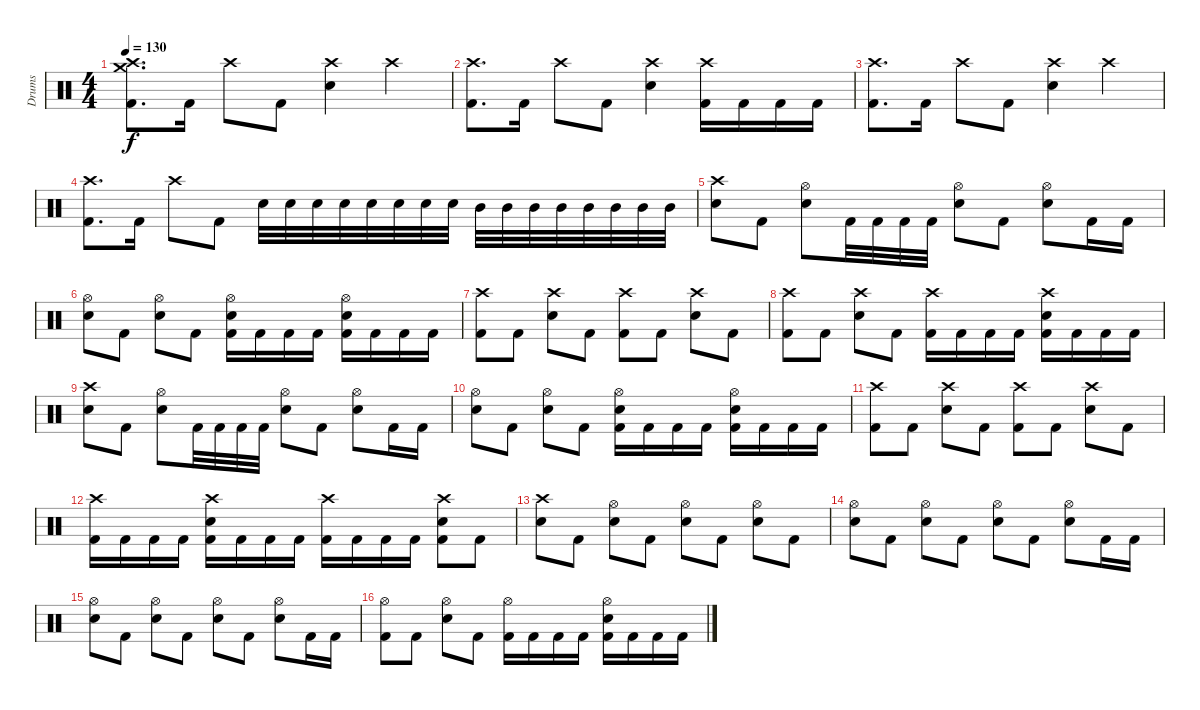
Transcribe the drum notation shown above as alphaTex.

\track ("Drums" "Drums") {instrument percussion}
\staff {score}
\articulation defaults
\ts (4 4)
\tempo 130
\clef neutral
\ks c
("Crash high (hit)" "Crash medium (hit)" "Kick (hit) 2").8{d dy f} "Kick (hit) 2".16 "Crash high (hit)".8 "Kick (hit) 2".8 ("Crash high (hit)" "Electric Snare (hit)").4 "Crash high (hit)".4 |
("Crash high (hit)" "Kick (hit) 2").8{d} "Kick (hit) 2".16 "Crash high (hit)".8 "Kick (hit) 2".8 ("Crash high (hit)" "Electric Snare (hit)").4 ("Crash high (hit)" "Kick (hit) 2").16 "Kick (hit) 2".16 "Kick (hit) 2".16 "Kick (hit) 2".16 |
("Crash high (hit)" "Kick (hit) 2").8{d} "Kick (hit) 2".16 "Crash high (hit)".8 "Kick (hit) 2".8 ("Crash high (hit)" "Electric Snare (hit)").4 "Crash high (hit)".4 |
("Crash high (hit)" "Kick (hit) 2").8{d} "Kick (hit) 2".16 "Crash high (hit)".8 "Kick (hit) 2".8 "Electric Snare (hit)".32 "Electric Snare (hit)".32 "Electric Snare (hit)".32 "Electric Snare (hit)".32 "Electric Snare (hit)".32 "Electric Snare (hit)".32 "Electric Snare (hit)".32 "Electric Snare (hit)".32 "Mid Tom (hit)".32 "Mid Tom (hit)".32 "Mid Tom (hit)".32 "Mid Tom (hit)".32 "Mid Tom (hit)".32 "Mid Tom (hit)".32 "Mid Tom (hit)".32 "Mid Tom (hit)".32 |
("Crash high (hit)" "Electric Snare (hit)").8 "Kick (hit) 2".8 ("Hi-Hat (open)" "Electric Snare (hit)").8 "Kick (hit) 2".32 "Kick (hit) 2".32 "Kick (hit) 2".32 "Kick (hit) 2".32 ("Hi-Hat (open)" "Electric Snare (hit)").8 "Kick (hit) 2".8 ("Hi-Hat (open)" "Electric Snare (hit)").8 "Kick (hit) 2".16 "Kick (hit) 2".16 |
("Hi-Hat (open)" "Electric Snare (hit)").8 "Kick (hit) 2".8 ("Hi-Hat (open)" "Electric Snare (hit)").8 "Kick (hit) 2".8 ("Hi-Hat (open)" "Electric Snare (hit)" "Kick (hit) 2").16 "Kick (hit) 2".16 "Kick (hit) 2".16 "Kick (hit) 2".16 ("Hi-Hat (open)" "Electric Snare (hit)" "Kick (hit) 2").16 "Kick (hit) 2".16 "Kick (hit) 2".16 "Kick (hit) 2".16 |
("Crash high (hit)" "Kick (hit) 2").8 "Kick (hit) 2".8 ("Crash high (hit)" "Electric Snare (hit)").8 "Kick (hit) 2".8 ("Crash high (hit)" "Kick (hit) 2").8 "Kick (hit) 2".8 ("Crash high (hit)" "Electric Snare (hit)").8 "Kick (hit) 2".8 |
("Crash high (hit)" "Kick (hit) 2").8 "Kick (hit) 2".8 ("Crash high (hit)" "Electric Snare (hit)").8 "Kick (hit) 2".8 ("Crash high (hit)" "Kick (hit) 2").16 "Kick (hit) 2".16 "Kick (hit) 2".16 "Kick (hit) 2".16 ("Crash high (hit)" "Electric Snare (hit)" "Kick (hit) 2").16 "Kick (hit) 2".16 "Kick (hit) 2".16 "Kick (hit) 2".16 |
("Crash high (hit)" "Electric Snare (hit)").8 "Kick (hit) 2".8 ("Hi-Hat (open)" "Electric Snare (hit)").8 "Kick (hit) 2".32 "Kick (hit) 2".32 "Kick (hit) 2".32 "Kick (hit) 2".32 ("Hi-Hat (open)" "Electric Snare (hit)").8 "Kick (hit) 2".8 ("Hi-Hat (open)" "Electric Snare (hit)").8 "Kick (hit) 2".16 "Kick (hit) 2".16 |
("Hi-Hat (open)" "Electric Snare (hit)").8 "Kick (hit) 2".8 ("Hi-Hat (open)" "Electric Snare (hit)").8 "Kick (hit) 2".8 ("Hi-Hat (open)" "Electric Snare (hit)" "Kick (hit) 2").16 "Kick (hit) 2".16 "Kick (hit) 2".16 "Kick (hit) 2".16 ("Hi-Hat (open)" "Electric Snare (hit)" "Kick (hit) 2").16 "Kick (hit) 2".16 "Kick (hit) 2".16 "Kick (hit) 2".16 |
("Crash high (hit)" "Kick (hit) 2").8 "Kick (hit) 2".8 ("Crash high (hit)" "Electric Snare (hit)").8 "Kick (hit) 2".8 ("Crash high (hit)" "Kick (hit) 2").8 "Kick (hit) 2".8 ("Crash high (hit)" "Electric Snare (hit)").8 "Kick (hit) 2".8 |
("Crash high (hit)" "Kick (hit) 2").16 "Kick (hit) 2".16 "Kick (hit) 2".16 "Kick (hit) 2".16 ("Crash high (hit)" "Electric Snare (hit)" "Kick (hit) 2").16 "Kick (hit) 2".16 "Kick (hit) 2".16 "Kick (hit) 2".16 ("Crash high (hit)" "Kick (hit) 2").16 "Kick (hit) 2".16 "Kick (hit) 2".16 "Kick (hit) 2".16 ("Crash high (hit)" "Electric Snare (hit)" "Kick (hit) 2").8 "Kick (hit) 2".8 |
("Crash high (hit)" "Electric Snare (hit)").8 "Kick (hit) 2".8 ("Hi-Hat (open)" "Electric Snare (hit)").8 "Kick (hit) 2".8 ("Hi-Hat (open)" "Electric Snare (hit)").8 "Kick (hit) 2".8 ("Hi-Hat (open)" "Electric Snare (hit)").8 "Kick (hit) 2".8 |
("Hi-Hat (open)" "Electric Snare (hit)").8 "Kick (hit) 2".8 ("Hi-Hat (open)" "Electric Snare (hit)").8 "Kick (hit) 2".8 ("Hi-Hat (open)" "Electric Snare (hit)").8 "Kick (hit) 2".8 ("Hi-Hat (open)" "Electric Snare (hit)").8 "Kick (hit) 2".16 "Kick (hit) 2".16 |
("Hi-Hat (open)" "Electric Snare (hit)").8 "Kick (hit) 2".8 ("Hi-Hat (open)" "Electric Snare (hit)").8 "Kick (hit) 2".8 ("Hi-Hat (open)" "Electric Snare (hit)").8 "Kick (hit) 2".8 ("Hi-Hat (open)" "Electric Snare (hit)").8 "Kick (hit) 2".16 "Kick (hit) 2".16 |
("Hi-Hat (open)" "Kick (hit) 2").8 "Kick (hit) 2".8 ("Hi-Hat (open)" "Electric Snare (hit)").8 "Kick (hit) 2".8 ("Hi-Hat (open)" "Kick (hit) 2").16 "Kick (hit) 2".16 "Kick (hit) 2".16 "Kick (hit) 2".16 ("Hi-Hat (open)" "Electric Snare (hit)" "Kick (hit) 2").16 "Kick (hit) 2".16 "Kick (hit) 2".16 "Kick (hit) 2".16
